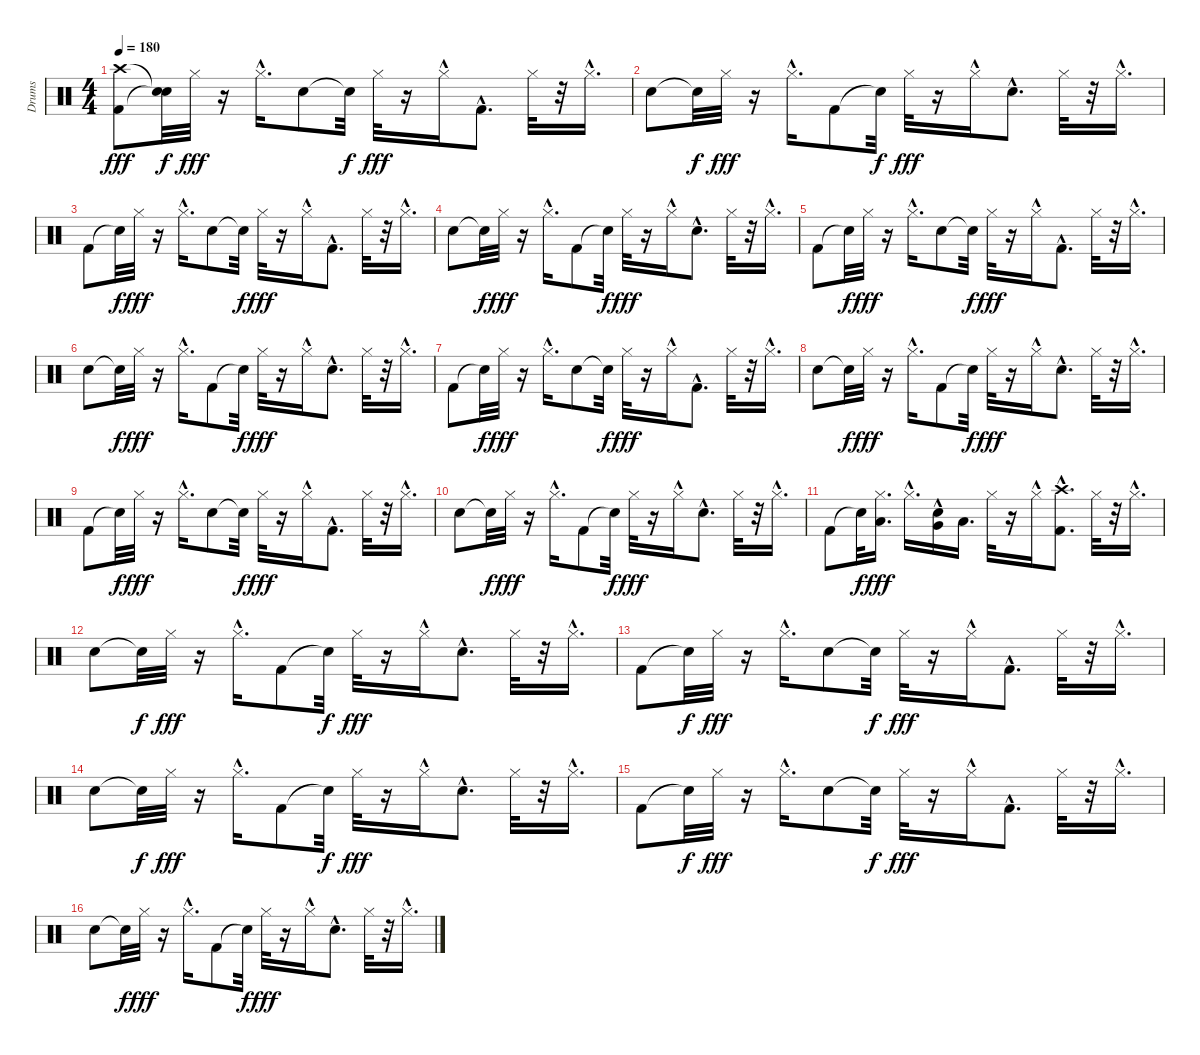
\track ("Drums" "Drums") {instrument percussion}
\staff {score}
\articulation defaults
\ts (4 4)
\tempo 180
\clef neutral
\ks c
("Kick (hit) 2" "Crash high (hit)").8{dy fff} ("Snare (hit)"{t} "Snare (hit)"{t}).32{dy f} "Hi-Hat (closed)".32{dy fff} r.16 "Hi-Hat (closed)"{hac}.16{d} "Snare (hit) 2".8 "Snare (hit)"{t}.32{dy f} "Hi-Hat (closed)".32{dy fff} r.16 "Hi-Hat (closed)"{hac}.16 "Kick (hit) 2"{hac}.8{d} "Hi-Hat (closed)".32 r.32 "Hi-Hat (closed)"{hac}.16{d} |
"Snare (hit) 2".8 "Snare (hit)"{t}.32{dy f} "Hi-Hat (closed)".32{dy fff} r.16 "Hi-Hat (closed)"{hac}.16{d} "Kick (hit) 2".8 "Snare (hit)"{t}.32{dy f} "Hi-Hat (closed)".32{dy fff} r.16 "Hi-Hat (closed)"{hac}.16 "Snare (hit) 2"{hac}.8{d} "Hi-Hat (closed)".32 r.32 "Hi-Hat (closed)"{hac}.16{d} |
"Kick (hit) 2".8 "Snare (hit)"{t}.32{dy f} "Hi-Hat (closed)".32{dy fff} r.16 "Hi-Hat (closed)"{hac}.16{d} "Snare (hit) 2".8 "Snare (hit)"{t}.32{dy f} "Hi-Hat (closed)".32{dy fff} r.16 "Hi-Hat (closed)"{hac}.16 "Kick (hit) 2"{hac}.8{d} "Hi-Hat (closed)".32 r.32 "Hi-Hat (closed)"{hac}.16{d} |
"Snare (hit) 2".8 "Snare (hit)"{t}.32{dy f} "Hi-Hat (closed)".32{dy fff} r.16 "Hi-Hat (closed)"{hac}.16{d} "Kick (hit) 2".8 "Snare (hit)"{t}.32{dy f} "Hi-Hat (closed)".32{dy fff} r.16 "Hi-Hat (closed)"{hac}.16 "Snare (hit) 2"{hac}.8{d} "Hi-Hat (closed)".32 r.32 "Hi-Hat (closed)"{hac}.16{d} |
"Kick (hit) 2".8 "Snare (hit)"{t}.32{dy f} "Hi-Hat (closed)".32{dy fff} r.16 "Hi-Hat (closed)"{hac}.16{d} "Snare (hit) 2".8 "Snare (hit)"{t}.32{dy f} "Hi-Hat (closed)".32{dy fff} r.16 "Hi-Hat (closed)"{hac}.16 "Kick (hit) 2"{hac}.8{d} "Hi-Hat (closed)".32 r.32 "Hi-Hat (closed)"{hac}.16{d} |
"Snare (hit) 2".8 "Snare (hit)"{t}.32{dy f} "Hi-Hat (closed)".32{dy fff} r.16 "Hi-Hat (closed)"{hac}.16{d} "Kick (hit) 2".8 "Snare (hit)"{t}.32{dy f} "Hi-Hat (closed)".32{dy fff} r.16 "Hi-Hat (closed)"{hac}.16 "Snare (hit) 2"{hac}.8{d} "Hi-Hat (closed)".32 r.32 "Hi-Hat (closed)"{hac}.16{d} |
"Kick (hit) 2".8 "Snare (hit)"{t}.32{dy f} "Hi-Hat (closed)".32{dy fff} r.16 "Hi-Hat (closed)"{hac}.16{d} "Snare (hit) 2".8 "Snare (hit)"{t}.32{dy f} "Hi-Hat (closed)".32{dy fff} r.16 "Hi-Hat (closed)"{hac}.16 "Kick (hit) 2"{hac}.8{d} "Hi-Hat (closed)".32 r.32 "Hi-Hat (closed)"{hac}.16{d} |
"Snare (hit) 2".8 "Snare (hit)"{t}.32{dy f} "Hi-Hat (closed)".32{dy fff} r.16 "Hi-Hat (closed)"{hac}.16{d} "Kick (hit) 2".8 "Snare (hit)"{t}.32{dy f} "Hi-Hat (closed)".32{dy fff} r.16 "Hi-Hat (closed)"{hac}.16 "Snare (hit) 2"{hac}.8{d} "Hi-Hat (closed)".32 r.32 "Hi-Hat (closed)"{hac}.16{d} |
"Kick (hit) 2".8 "Snare (hit)"{t}.32{dy f} "Hi-Hat (closed)".32{dy fff} r.16 "Hi-Hat (closed)"{hac}.16{d} "Snare (hit) 2".8 "Snare (hit)"{t}.32{dy f} "Hi-Hat (closed)".32{dy fff} r.16 "Hi-Hat (closed)"{hac}.16 "Kick (hit) 2"{hac}.8{d} "Hi-Hat (closed)".32 r.32 "Hi-Hat (closed)"{hac}.16{d} |
"Snare (hit) 2".8 "Snare (hit)"{t}.32{dy f} "Hi-Hat (closed)".32{dy fff} r.16 "Hi-Hat (closed)"{hac}.16{d} "Kick (hit) 2".8 "Snare (hit)"{t}.32{dy f} "Hi-Hat (closed)".32{dy fff} r.16 "Hi-Hat (closed)"{hac}.16 "Snare (hit) 2"{hac}.8{d} "Hi-Hat (closed)".32 r.32 "Hi-Hat (closed)"{hac}.16{d} |
"Kick (hit) 2".8 "Snare (hit)"{t}.32{dy f} ("Hi-Hat (closed)" "Low Tom (hit)").16{d dy fff} "Hi-Hat (closed)"{hac}.16{d} ("Snare (hit) 2"{hac} "Very Low Tom (hit)").16 "Low Floor Tom (hit)".16{d} "Hi-Hat (closed)".32 r.16 "Hi-Hat (closed)"{hac}.16 ("Kick (hit) 2"{hac} "Crash high (hit)").8{d} "Hi-Hat (closed)".32 r.32 "Hi-Hat (closed)"{hac}.16{d} |
"Snare (hit) 2".8 "Snare (hit)"{t}.32{dy f} "Hi-Hat (closed)".32{dy fff} r.16 "Hi-Hat (closed)"{hac}.16{d} "Kick (hit) 2".8 "Snare (hit)"{t}.32{dy f} "Hi-Hat (closed)".32{dy fff} r.16 "Hi-Hat (closed)"{hac}.16 "Snare (hit) 2"{hac}.8{d} "Hi-Hat (closed)".32 r.32 "Hi-Hat (closed)"{hac}.16{d} |
"Kick (hit) 2".8 "Snare (hit)"{t}.32{dy f} "Hi-Hat (closed)".32{dy fff} r.16 "Hi-Hat (closed)"{hac}.16{d} "Snare (hit) 2".8 "Snare (hit)"{t}.32{dy f} "Hi-Hat (closed)".32{dy fff} r.16 "Hi-Hat (closed)"{hac}.16 "Kick (hit) 2"{hac}.8{d} "Hi-Hat (closed)".32 r.32 "Hi-Hat (closed)"{hac}.16{d} |
"Snare (hit) 2".8 "Snare (hit)"{t}.32{dy f} "Hi-Hat (closed)".32{dy fff} r.16 "Hi-Hat (closed)"{hac}.16{d} "Kick (hit) 2".8 "Snare (hit)"{t}.32{dy f} "Hi-Hat (closed)".32{dy fff} r.16 "Hi-Hat (closed)"{hac}.16 "Snare (hit) 2"{hac}.8{d} "Hi-Hat (closed)".32 r.32 "Hi-Hat (closed)"{hac}.16{d} |
"Kick (hit) 2".8 "Snare (hit)"{t}.32{dy f} "Hi-Hat (closed)".32{dy fff} r.16 "Hi-Hat (closed)"{hac}.16{d} "Snare (hit) 2".8 "Snare (hit)"{t}.32{dy f} "Hi-Hat (closed)".32{dy fff} r.16 "Hi-Hat (closed)"{hac}.16 "Kick (hit) 2"{hac}.8{d} "Hi-Hat (closed)".32 r.32 "Hi-Hat (closed)"{hac}.16{d} |
"Snare (hit) 2".8 "Snare (hit)"{t}.32{dy f} "Hi-Hat (closed)".32{dy fff} r.16 "Hi-Hat (closed)"{hac}.16{d} "Kick (hit) 2".8 "Snare (hit)"{t}.32{dy f} "Hi-Hat (closed)".32{dy fff} r.16 "Hi-Hat (closed)"{hac}.16 "Snare (hit) 2"{hac}.8{d} "Hi-Hat (closed)".32 r.32 "Hi-Hat (closed)"{hac}.16{d}
